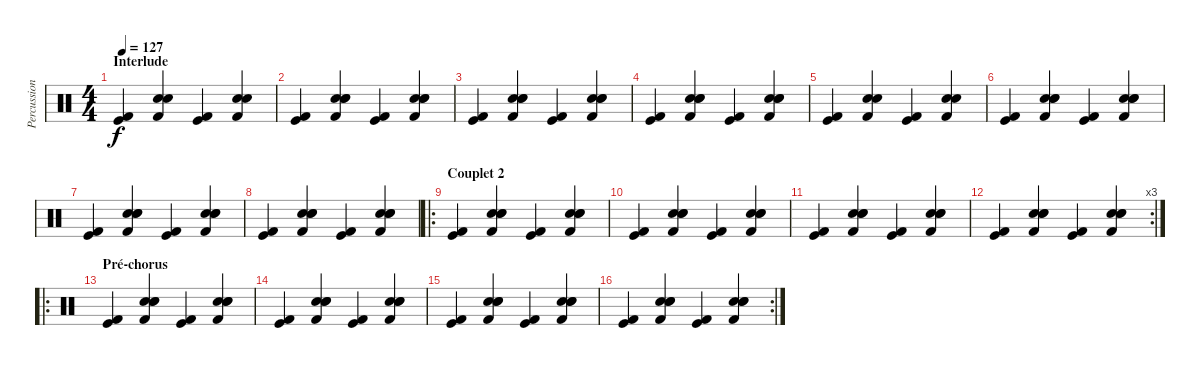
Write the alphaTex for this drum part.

\track ("Percussions" "Percussion") {instrument percussion}
\staff {score}
\articulation defaults
\ts (4 4)
\section ("" "Interlude")
\tempo 127
\clef neutral
\ks c
("Kick (hit) 2" "Kick (hit)").4{dy f} ("Kick (hit) 2" "Electric Snare (hit)" "Snare (hit) 2").4 ("Kick (hit) 2" "Kick (hit)").4 ("Kick (hit) 2" "Electric Snare (hit)" "Snare (hit) 2").4 |
("Kick (hit) 2" "Kick (hit)").4 ("Electric Snare (hit)" "Kick (hit) 2" "Electric Snare (hit)" "Snare (hit) 2").4 ("Kick (hit) 2" "Kick (hit)").4 ("Electric Snare (hit)" "Kick (hit) 2" "Electric Snare (hit)" "Snare (hit) 2").4 |
("Kick (hit) 2" "Kick (hit)").4 ("Electric Snare (hit)" "Kick (hit) 2" "Electric Snare (hit)" "Snare (hit) 2").4 ("Kick (hit) 2" "Kick (hit)").4 ("Electric Snare (hit)" "Kick (hit) 2" "Electric Snare (hit)" "Snare (hit) 2").4 |
("Kick (hit) 2" "Kick (hit)").4 ("Electric Snare (hit)" "Kick (hit) 2" "Electric Snare (hit)" "Snare (hit) 2").4 ("Kick (hit) 2" "Kick (hit)").4 ("Electric Snare (hit)" "Kick (hit) 2" "Electric Snare (hit)" "Snare (hit) 2").4 |
("Kick (hit) 2" "Kick (hit)").4 ("Kick (hit) 2" "Electric Snare (hit)" "Snare (hit) 2").4 ("Kick (hit) 2" "Kick (hit)").4 ("Kick (hit) 2" "Electric Snare (hit)" "Snare (hit) 2").4 |
("Kick (hit) 2" "Kick (hit)").4 ("Electric Snare (hit)" "Kick (hit) 2" "Electric Snare (hit)" "Snare (hit) 2").4 ("Kick (hit) 2" "Kick (hit)").4 ("Electric Snare (hit)" "Kick (hit) 2" "Electric Snare (hit)" "Snare (hit) 2").4 |
("Kick (hit) 2" "Kick (hit)").4 ("Electric Snare (hit)" "Kick (hit) 2" "Electric Snare (hit)" "Snare (hit) 2").4 ("Kick (hit) 2" "Kick (hit)").4 ("Electric Snare (hit)" "Kick (hit) 2" "Electric Snare (hit)" "Snare (hit) 2").4 |
("Kick (hit) 2" "Kick (hit)").4 ("Electric Snare (hit)" "Kick (hit) 2" "Electric Snare (hit)" "Snare (hit) 2").4 ("Kick (hit) 2" "Kick (hit)").4 ("Electric Snare (hit)" "Kick (hit) 2" "Electric Snare (hit)" "Snare (hit) 2").4 |
\ro
\section ("" "Couplet 2")
("Kick (hit) 2" "Kick (hit)").4 ("Electric Snare (hit)" "Kick (hit) 2" "Electric Snare (hit)" "Snare (hit) 2").4 ("Kick (hit) 2" "Kick (hit)").4 ("Electric Snare (hit)" "Kick (hit) 2" "Electric Snare (hit)" "Snare (hit) 2").4 |
("Kick (hit) 2" "Kick (hit)").4 ("Electric Snare (hit)" "Kick (hit) 2" "Electric Snare (hit)" "Snare (hit) 2").4 ("Kick (hit) 2" "Kick (hit)").4 ("Electric Snare (hit)" "Kick (hit) 2" "Electric Snare (hit)" "Snare (hit) 2").4 |
("Kick (hit) 2" "Kick (hit)").4 ("Electric Snare (hit)" "Kick (hit) 2" "Electric Snare (hit)" "Snare (hit) 2").4 ("Kick (hit) 2" "Kick (hit)").4 ("Electric Snare (hit)" "Kick (hit) 2" "Electric Snare (hit)" "Snare (hit) 2").4 |
\rc 3
("Kick (hit) 2" "Kick (hit)").4 ("Electric Snare (hit)" "Kick (hit) 2" "Electric Snare (hit)" "Snare (hit) 2").4 ("Kick (hit) 2" "Kick (hit)").4 ("Electric Snare (hit)" "Kick (hit) 2" "Electric Snare (hit)" "Snare (hit) 2").4 |
\ro
\section ("" "Pré-chorus")
("Kick (hit) 2" "Kick (hit)").4 ("Electric Snare (hit)" "Kick (hit) 2" "Electric Snare (hit)" "Snare (hit) 2").4 ("Kick (hit) 2" "Kick (hit)").4 ("Electric Snare (hit)" "Kick (hit) 2" "Electric Snare (hit)" "Snare (hit) 2").4 |
("Kick (hit) 2" "Kick (hit)").4 ("Electric Snare (hit)" "Kick (hit) 2" "Electric Snare (hit)" "Snare (hit) 2").4 ("Kick (hit) 2" "Kick (hit)").4 ("Electric Snare (hit)" "Kick (hit) 2" "Electric Snare (hit)" "Snare (hit) 2").4 |
("Kick (hit) 2" "Kick (hit)").4 ("Electric Snare (hit)" "Kick (hit) 2" "Electric Snare (hit)" "Snare (hit) 2").4 ("Kick (hit) 2" "Kick (hit)").4 ("Electric Snare (hit)" "Kick (hit) 2" "Electric Snare (hit)" "Snare (hit) 2").4 |
\rc 2
("Kick (hit) 2" "Kick (hit)").4 ("Electric Snare (hit)" "Kick (hit) 2" "Electric Snare (hit)" "Snare (hit) 2").4 ("Kick (hit) 2" "Kick (hit)").4 ("Electric Snare (hit)" "Kick (hit) 2" "Electric Snare (hit)" "Snare (hit) 2").4
